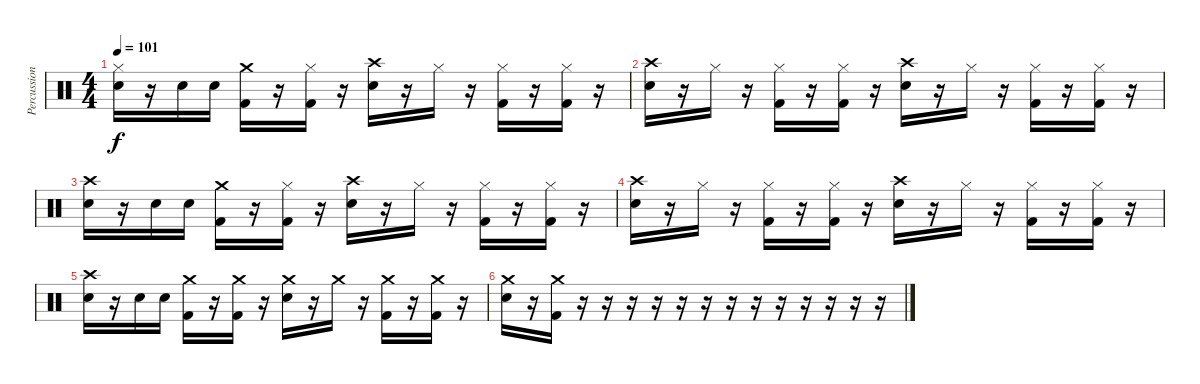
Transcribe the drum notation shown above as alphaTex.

\track ("Percussion (Chris)" "Percussion") {instrument percussion}
\staff {score}
\articulation defaults
\ts (4 4)
\tempo 101
\clef neutral
\ks c
("Hi-Hat (closed)" "Snare (hit) 2").16{dy f} r.16 "Snare (hit) 2".16 "Snare (hit) 2".16 ("Crash medium (hit)" "Kick (hit) 2").16 r.16 ("Hi-Hat (closed)" "Kick (hit) 2").16 r.16 ("Crash high (hit)" "Snare (hit) 2").16 r.16 "Hi-Hat (closed)".16 r.16 ("Hi-Hat (closed)" "Kick (hit) 2").16 r.16 ("Hi-Hat (closed)" "Kick (hit) 2").16 r.16 |
("Crash high (hit)" "Snare (hit) 2").16 r.16 "Hi-Hat (closed)".16 r.16 ("Hi-Hat (closed)" "Kick (hit) 2").16 r.16 ("Hi-Hat (closed)" "Kick (hit) 2").16 r.16 ("Crash high (hit)" "Snare (hit) 2").16 r.16 "Hi-Hat (closed)".16 r.16 ("Hi-Hat (closed)" "Kick (hit) 2").16 r.16 ("Hi-Hat (closed)" "Kick (hit) 2").16 r.16 |
("Crash high (hit)" "Snare (hit) 2").16 r.16 "Snare (hit) 2".16 "Snare (hit) 2".16 ("Crash medium (hit)" "Kick (hit) 2").16 r.16 ("Hi-Hat (closed)" "Kick (hit) 2").16 r.16 ("Crash high (hit)" "Snare (hit) 2").16 r.16 "Hi-Hat (closed)".16 r.16 ("Hi-Hat (closed)" "Kick (hit) 2").16 r.16 ("Hi-Hat (closed)" "Kick (hit) 2").16 r.16 |
("Crash high (hit)" "Snare (hit) 2").16 r.16 "Hi-Hat (closed)".16 r.16 ("Hi-Hat (closed)" "Kick (hit) 2").16 r.16 ("Hi-Hat (closed)" "Kick (hit) 2").16 r.16 ("Crash high (hit)" "Snare (hit) 2").16 r.16 "Hi-Hat (closed)".16 r.16 ("Hi-Hat (closed)" "Kick (hit) 2").16 r.16 ("Hi-Hat (closed)" "Kick (hit) 2").16 r.16 |
("Crash high (hit)" "Snare (hit) 2").16 r.16 "Snare (hit) 2".16 "Snare (hit) 2".16 ("Crash medium (hit)" "Kick (hit) 2").16 r.16 ("Crash medium (hit)" "Kick (hit) 2").16 r.16 ("Crash medium (hit)" "Snare (hit) 2").16 r.16 "Crash medium (hit)".16 r.16 ("Crash medium (hit)" "Kick (hit) 2").16 r.16 ("Crash medium (hit)" "Kick (hit) 2").16 r.16 |
("Crash medium (hit)" "Snare (hit) 2").16 r.16 ("Crash medium (hit)" "Kick (hit) 2").16 r.16 r.16 r.16 r.16 r.16 r.16 r.16 r.16 r.16 r.16 r.16 r.16 r.16
